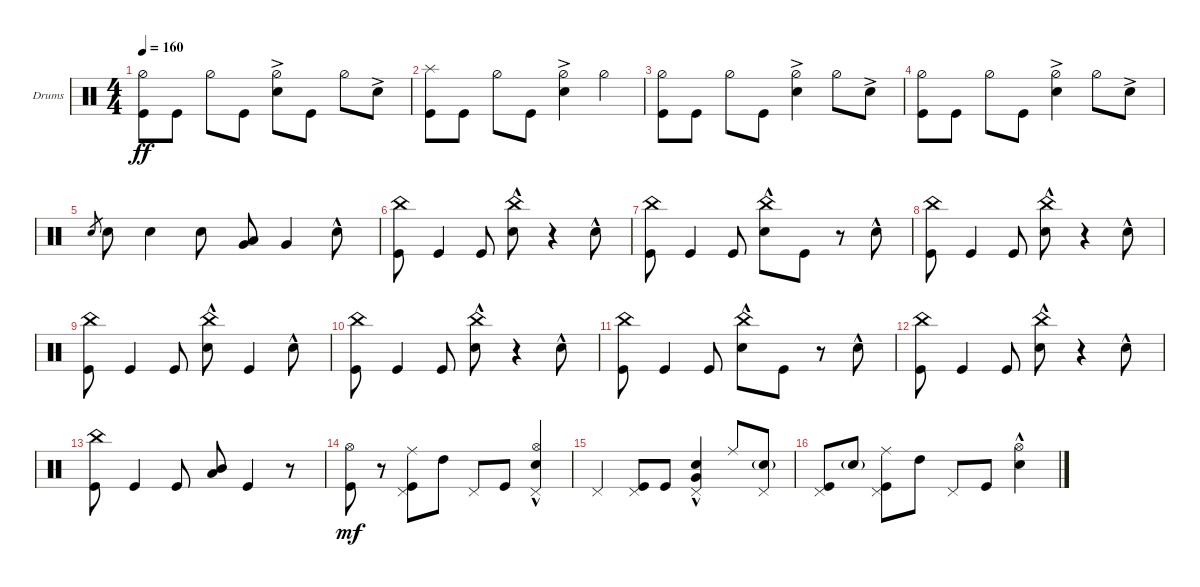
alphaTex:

\defaultSystemsLayout 4
\bracketExtendMode groupsimilarinstruments
\firstSystemTrackNameOrientation horizontal
\otherSystemsTrackNameOrientation horizontal
\track ("Drumkit" "Drums") {instrument percussion}
\staff {score}
\articulation defaults
\ts (4 4)
\tempo 160
\clef neutral
\scale
0.333333
\ks c
("Kick (hit)" "Hi-Hat (half)").8{dy ff} "Kick (hit)".8 "Hi-Hat (half)".8 "Kick (hit)".8 ("Snare (hit) 2"{ac} "Hi-Hat (half)").8 "Kick (hit)".8 "Hi-Hat (half)".8 "Snare (hit) 2"{ac}.8 |
\scale
0.333333 ("Kick (hit)" "Splash (hit)").8 "Kick (hit)".8 "Hi-Hat (half)".8 "Kick (hit)".8 ("Snare (hit) 2"{ac} "Hi-Hat (half)").4 "Hi-Hat (half)".4 |
\scale
0.333333 ("Kick (hit)" "Hi-Hat (half)").8 "Kick (hit)".8 "Hi-Hat (half)".8 "Kick (hit)".8 ("Snare (hit) 2"{ac} "Hi-Hat (half)").4 "Hi-Hat (half)".8 "Snare (hit) 2"{ac}.8 |
\scale
0.333333 ("Kick (hit)" "Hi-Hat (half)").8 "Kick (hit)".8 "Hi-Hat (half)".8 "Kick (hit)".8 ("Snare (hit) 2"{ac} "Hi-Hat (half)").4 "Hi-Hat (half)".8 "Snare (hit) 2"{ac}.8 |
\scale
0.333333 "Snare (hit) 2".8{gr} "Snare (hit) 2".8 "Snare (hit) 2".4 "Snare (hit) 2".8 ("Very Low Tom (hit)" "Low Tom (hit)").8 "Very Low Tom (hit)".4 "Snare (hit) 2"{hac}.8 |
("Kick (hit)" "China (hit)").8 "Kick (hit)".4 "Kick (hit)".8 ("China (hit)" "Snare (hit) 2"{hac}).8 r.4 "Snare (hit) 2"{hac}.8 |
("Kick (hit)" "China (hit)").8 "Kick (hit)".4 "Kick (hit)".8 ("China (hit)" "Snare (hit) 2"{hac}).8 "Kick (hit)".8 r.8 "Snare (hit) 2"{hac}.8 |
("Kick (hit)" "China (hit)").8 "Kick (hit)".4 "Kick (hit)".8 ("China (hit)" "Snare (hit) 2"{hac}).8 r.4 "Snare (hit) 2"{hac}.8 |
("Kick (hit)" "China (hit)").8 "Kick (hit)".4 "Kick (hit)".8 ("Snare (hit) 2"{hac} "China (hit)").8 "Kick (hit)".4 "Snare (hit) 2"{hac}.8 |
("Kick (hit)" "China (hit)").8 "Kick (hit)".4 "Kick (hit)".8 ("China (hit)" "Snare (hit) 2"{hac}).8 r.4 "Snare (hit) 2"{hac}.8 |
("Kick (hit)" "China (hit)").8 "Kick (hit)".4 "Kick (hit)".8 ("China (hit)" "Snare (hit) 2"{hac}).8 "Kick (hit)".8 r.8 "Snare (hit) 2"{hac}.8 |
("Kick (hit)" "China (hit)").8 "Kick (hit)".4 "Kick (hit)".8 ("China (hit)" "Snare (hit) 2"{hac}).8 r.4 "Snare (hit) 2"{hac}.8 |
("Kick (hit)" "China (hit)").8 "Kick (hit)".4 "Kick (hit)".8 ("Mid Tom (hit)" "Low Tom (hit)").8 "Kick (hit)".4 r.8 |
\scale
0.333333 ("Kick (hit)" "Hi-Hat (open)").8{dy mf} r.8 ("Kick (hit)" "Pedal Hi-Hat (hit)" "Ride (middle)").8 "High Tom (hit)".8 "Pedal Hi-Hat (hit)".8 "Kick (hit)".8 ("Snare (hit) 2"{hac} "Pedal Hi-Hat (hit)" "Hi-Hat (open)").4 |
\scale
0.333333 "Pedal Hi-Hat (hit)".4 ("Pedal Hi-Hat (hit)" "Kick (hit)").8 "Kick (hit)".8 ("Pedal Hi-Hat (hit)" "Snare (hit) 2"{hac} "Very Low Tom (hit)"{hac}).4 "Ride (middle)".8 ("Pedal Hi-Hat (hit)" "Snare (hit) 2"{g}).8 |
\scale
0.333333 ("Kick (hit)" "Pedal Hi-Hat (hit)").8 "Snare (hit) 2"{g}.8 ("Kick (hit)" "Pedal Hi-Hat (hit)" "Ride (middle)").8 "High Tom (hit)".8 "Pedal Hi-Hat (hit)".8 "Kick (hit)".8 ("Snare (hit) 2"{hac} "Hi-Hat (open)").4
